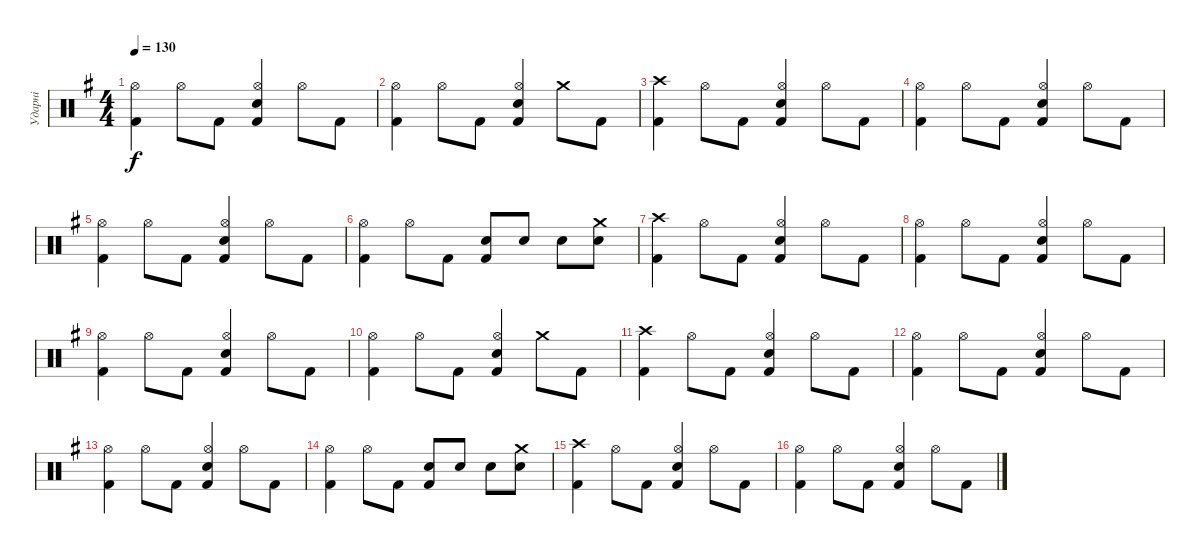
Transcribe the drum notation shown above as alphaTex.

\track ("Ударні" "Ударні") {instrument percussion}
\staff {score}
\articulation defaults
\ts (4 4)
\tempo 130
\clef neutral
\ks eminor
("Kick (hit) 2" "Hi-Hat (open)").4{dy f} "Hi-Hat (open)".8 "Kick (hit) 2".8 ("Kick (hit) 2" "Snare (hit) 2" "Hi-Hat (open)").4 "Hi-Hat (open)".8 "Kick (hit) 2".8 |
("Kick (hit) 2" "Hi-Hat (open)").4 "Hi-Hat (open)".8 "Kick (hit) 2".8 ("Kick (hit) 2" "Snare (hit) 2" "Hi-Hat (open)").4 "Crash medium (hit)".8 "Kick (hit) 2".8 |
("Kick (hit) 2" "Crash high (hit)").4 "Hi-Hat (open)".8 "Kick (hit) 2".8 ("Kick (hit) 2" "Snare (hit) 2" "Hi-Hat (open)").4 "Hi-Hat (open)".8 "Kick (hit) 2".8 |
("Kick (hit) 2" "Hi-Hat (open)").4 "Hi-Hat (open)".8 "Kick (hit) 2".8 ("Kick (hit) 2" "Snare (hit) 2" "Hi-Hat (open)").4 "Hi-Hat (open)".8 "Kick (hit) 2".8 |
("Kick (hit) 2" "Hi-Hat (open)").4 "Hi-Hat (open)".8 "Kick (hit) 2".8 ("Kick (hit) 2" "Snare (hit) 2" "Hi-Hat (open)").4 "Hi-Hat (open)".8 "Kick (hit) 2".8 |
("Kick (hit) 2" "Hi-Hat (open)").4 "Hi-Hat (open)".8 "Kick (hit) 2".8 ("Kick (hit) 2" "Snare (hit) 2").8 "Snare (hit) 2".8 "Snare (hit) 2".8 ("Snare (hit) 2" "Crash medium (hit)").8 |
("Kick (hit) 2" "Crash high (hit)").4 "Hi-Hat (open)".8 "Kick (hit) 2".8 ("Kick (hit) 2" "Snare (hit) 2" "Hi-Hat (open)").4 "Hi-Hat (open)".8 "Kick (hit) 2".8 |
("Kick (hit) 2" "Hi-Hat (open)").4 "Hi-Hat (open)".8 "Kick (hit) 2".8 ("Kick (hit) 2" "Snare (hit) 2" "Hi-Hat (open)").4 "Hi-Hat (open)".8 "Kick (hit) 2".8 |
("Kick (hit) 2" "Hi-Hat (open)").4 "Hi-Hat (open)".8 "Kick (hit) 2".8 ("Kick (hit) 2" "Snare (hit) 2" "Hi-Hat (open)").4 "Hi-Hat (open)".8 "Kick (hit) 2".8 |
("Kick (hit) 2" "Hi-Hat (open)").4 "Hi-Hat (open)".8 "Kick (hit) 2".8 ("Kick (hit) 2" "Snare (hit) 2" "Hi-Hat (open)").4 "Crash medium (hit)".8 "Kick (hit) 2".8 |
("Kick (hit) 2" "Crash high (hit)").4 "Hi-Hat (open)".8 "Kick (hit) 2".8 ("Kick (hit) 2" "Snare (hit) 2" "Hi-Hat (open)").4 "Hi-Hat (open)".8 "Kick (hit) 2".8 |
("Kick (hit) 2" "Hi-Hat (open)").4 "Hi-Hat (open)".8 "Kick (hit) 2".8 ("Kick (hit) 2" "Snare (hit) 2" "Hi-Hat (open)").4 "Hi-Hat (open)".8 "Kick (hit) 2".8 |
("Kick (hit) 2" "Hi-Hat (open)").4 "Hi-Hat (open)".8 "Kick (hit) 2".8 ("Kick (hit) 2" "Snare (hit) 2" "Hi-Hat (open)").4 "Hi-Hat (open)".8 "Kick (hit) 2".8 |
("Kick (hit) 2" "Hi-Hat (open)").4 "Hi-Hat (open)".8 "Kick (hit) 2".8 ("Kick (hit) 2" "Snare (hit) 2").8 "Snare (hit) 2".8 "Snare (hit) 2".8 ("Snare (hit) 2" "Crash medium (hit)").8 |
("Kick (hit) 2" "Crash high (hit)").4 "Hi-Hat (open)".8 "Kick (hit) 2".8 ("Kick (hit) 2" "Snare (hit) 2" "Hi-Hat (open)").4 "Hi-Hat (open)".8 "Kick (hit) 2".8 |
("Kick (hit) 2" "Hi-Hat (open)").4 "Hi-Hat (open)".8 "Kick (hit) 2".8 ("Kick (hit) 2" "Snare (hit) 2" "Hi-Hat (open)").4 "Hi-Hat (open)".8 "Kick (hit) 2".8
